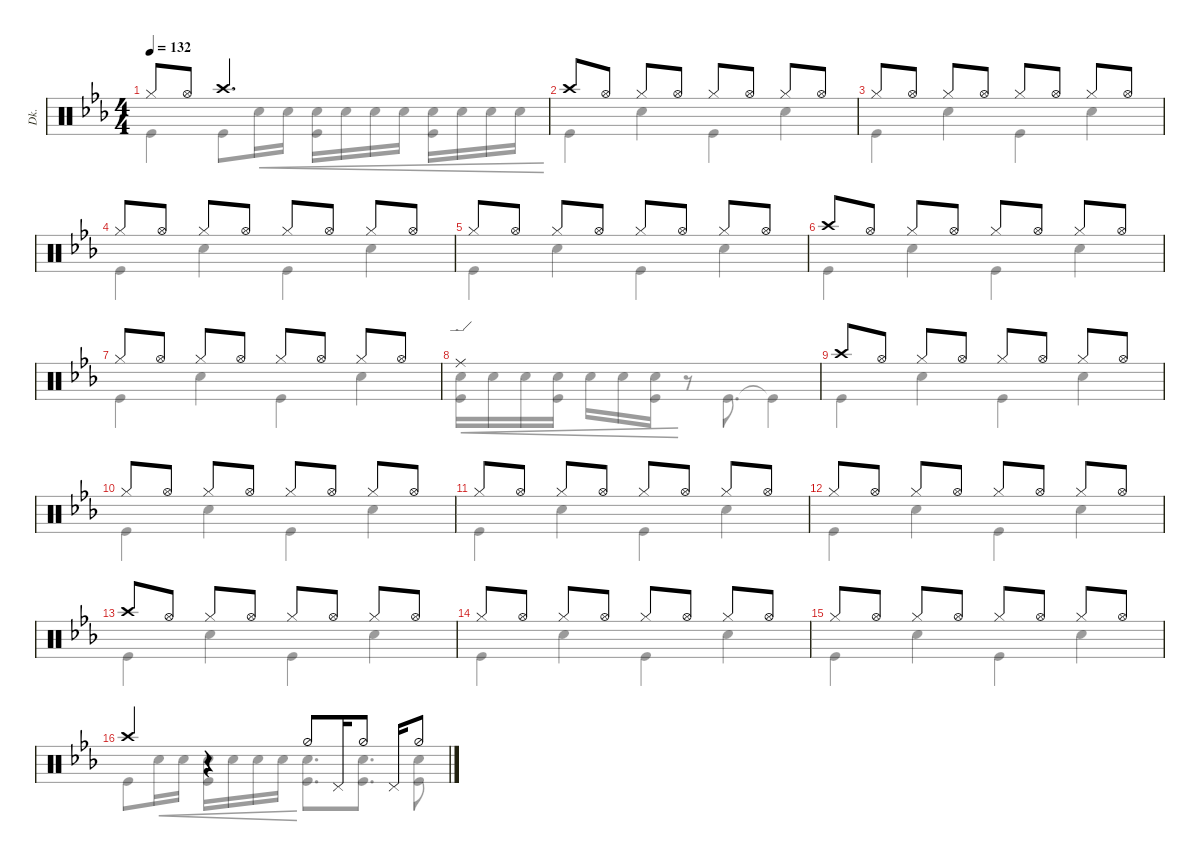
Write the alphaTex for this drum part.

\defaultSystemsLayout 4
\hideDynamics
\bracketExtendMode nobrackets
\otherSystemsTrackNameOrientation horizontal
\track ("Drumkit" "Dk.") {instrument percussion}
\staff {score}
\articulation defaults
\voice
\ts (4 4)
\tempo 132
\clef neutral
\ks eb "Hi-Hat (closed)".8{dy mf} "Hi-Hat (open)".8 "Crash high (hit)".2{d dy f}
|
"Crash high (hit)".8{dy mf} "Hi-Hat (open)".8 "Hi-Hat (closed)".8 "Hi-Hat (open)".8 "Hi-Hat (closed)".8 "Hi-Hat (open)".8 "Hi-Hat (closed)".8 "Hi-Hat (open)".8 |
"Hi-Hat (closed)".8 "Hi-Hat (open)".8 "Hi-Hat (closed)".8 "Hi-Hat (open)".8 "Hi-Hat (closed)".8 "Hi-Hat (open)".8 "Hi-Hat (closed)".8 "Hi-Hat (open)".8 |
"Hi-Hat (closed)".8 "Hi-Hat (open)".8 "Hi-Hat (closed)".8 "Hi-Hat (open)".8 "Hi-Hat (closed)".8 "Hi-Hat (open)".8 "Hi-Hat (closed)".8 "Hi-Hat (open)".8 |
"Hi-Hat (closed)".8 "Hi-Hat (open)".8 "Hi-Hat (closed)".8 "Hi-Hat (open)".8 "Hi-Hat (closed)".8 "Hi-Hat (open)".8 "Hi-Hat (closed)".8 "Hi-Hat (open)".8 |
"Crash high (hit)".8 "Hi-Hat (open)".8 "Hi-Hat (closed)".8 "Hi-Hat (open)".8 "Hi-Hat (closed)".8 "Hi-Hat (open)".8 "Hi-Hat (closed)".8 "Hi-Hat (open)".8 |
"Hi-Hat (closed)".8 "Hi-Hat (open)".8 "Hi-Hat (closed)".8 "Hi-Hat (open)".8 "Hi-Hat (closed)".8 "Hi-Hat (open)".8 "Hi-Hat (closed)".8 "Hi-Hat (open)".8 |
"Ride (edge)".1{dy ff} |
"Crash high (hit)".8{dy mf} "Hi-Hat (open)".8 "Hi-Hat (closed)".8 "Hi-Hat (open)".8 "Hi-Hat (closed)".8 "Hi-Hat (open)".8 "Hi-Hat (closed)".8 "Hi-Hat (open)".8 |
"Hi-Hat (closed)".8 "Hi-Hat (open)".8 "Hi-Hat (closed)".8 "Hi-Hat (open)".8 "Hi-Hat (closed)".8 "Hi-Hat (open)".8 "Hi-Hat (closed)".8 "Hi-Hat (open)".8 |
"Hi-Hat (closed)".8 "Hi-Hat (open)".8 "Hi-Hat (closed)".8 "Hi-Hat (open)".8 "Hi-Hat (closed)".8 "Hi-Hat (open)".8 "Hi-Hat (closed)".8 "Hi-Hat (open)".8 |
"Hi-Hat (closed)".8 "Hi-Hat (open)".8 "Hi-Hat (closed)".8 "Hi-Hat (open)".8 "Hi-Hat (closed)".8 "Hi-Hat (open)".8 "Hi-Hat (closed)".8 "Hi-Hat (open)".8 |
"Crash high (hit)".8 "Hi-Hat (open)".8 "Hi-Hat (closed)".8 "Hi-Hat (open)".8 "Hi-Hat (closed)".8 "Hi-Hat (open)".8 "Hi-Hat (closed)".8 "Hi-Hat (open)".8 |
"Hi-Hat (closed)".8 "Hi-Hat (open)".8 "Hi-Hat (closed)".8 "Hi-Hat (open)".8 "Hi-Hat (closed)".8 "Hi-Hat (open)".8 "Hi-Hat (closed)".8 "Hi-Hat (open)".8 |
"Hi-Hat (closed)".8 "Hi-Hat (open)".8 "Hi-Hat (closed)".8 "Hi-Hat (open)".8 "Hi-Hat (closed)".8 "Hi-Hat (open)".8 "Hi-Hat (closed)".8 "Hi-Hat (open)".8 |
"Crash high (hit)".4{dy f} r.4 "Hi-Hat (half)".8 "Pedal Hi-Hat (hit)".16 "Hi-Hat (half)".8 "Pedal Hi-Hat (hit)".16 "Hi-Hat (half)".8
\voice
\clef neutral
\ottava regular
\simile none
\ks eb "Kick (hit)".4{dy mf} "Kick (hit)".8{dy mp} "Snare (hit) 2".16{cre} "Snare (hit) 2".16{cre}
("Kick (hit)" "Snare (hit) 2").16{cre} "Snare (hit) 2".16{cre} "Snare (hit) 2".16{cre} "Snare (hit) 2".16{cre} ("Snare (hit) 2" "Kick (hit)").16{cre} "Snare (hit) 2".16{cre} "Snare (hit) 2".16{cre} "Snare (hit) 2".16{cre} |
"Kick (hit)".4{dy mf} "Snare (hit) 2".4 "Kick (hit)".4 "Snare (hit) 2".4 |
"Kick (hit)".4 "Snare (hit) 2".4 "Kick (hit)".4 "Snare (hit) 2".4 |
"Kick (hit)".4 "Snare (hit) 2".4 "Kick (hit)".4 "Snare (hit) 2".4 |
"Kick (hit)".4 "Snare (hit) 2".4 "Kick (hit)".4 "Snare (hit) 2".4 |
"Kick (hit)".4 "Snare (hit) 2".4 "Kick (hit)".4 "Snare (hit) 2".4 |
"Kick (hit)".4 "Snare (hit) 2".4 "Kick (hit)".4 "Snare (hit) 2".4 |
("Kick (hit)" "Snare (hit) 2").16{cre} "Snare (hit) 2".16{cre} "Snare (hit) 2".16{cre} ("Snare (hit) 2" "Kick (hit)").16{cre} "Snare (hit) 2".16{cre} "Snare (hit) 2".16{cre} ("Snare (hit) 2" "Kick (hit)").16{cre} r.8 "Kick (hit)".8{d} "Kick (hit)"{t}.4 |
"Kick (hit)".4 "Snare (hit) 2".4 "Kick (hit)".4 "Snare (hit) 2".4 |
"Kick (hit)".4 "Snare (hit) 2".4 "Kick (hit)".4 "Snare (hit) 2".4 |
"Kick (hit)".4 "Snare (hit) 2".4 "Kick (hit)".4 "Snare (hit) 2".4 |
"Kick (hit)".4 "Snare (hit) 2".4 "Kick (hit)".4 "Snare (hit) 2".4 |
"Kick (hit)".4 "Snare (hit) 2".4 "Kick (hit)".4 "Snare (hit) 2".4 |
"Kick (hit)".4 "Snare (hit) 2".4 "Kick (hit)".4 "Snare (hit) 2".4 |
"Kick (hit)".4 "Snare (hit) 2".4 "Kick (hit)".4 "Snare (hit) 2".4 |
"Kick (hit)".8 "Snare (hit) 2".16{cre dy p} "Snare (hit) 2".16{cre} ("Snare (hit) 2" "Kick (hit)").16{cre} "Snare (hit) 2".16{cre} "Snare (hit) 2".16{cre} "Snare (hit) 2".16{cre} ("Kick (hit)" "Snare (hit) 2").8{d dy mf} ("Snare (hit) 2" "Kick (hit)").8{d} ("Kick (hit)" "Snare (hit) 2").8
